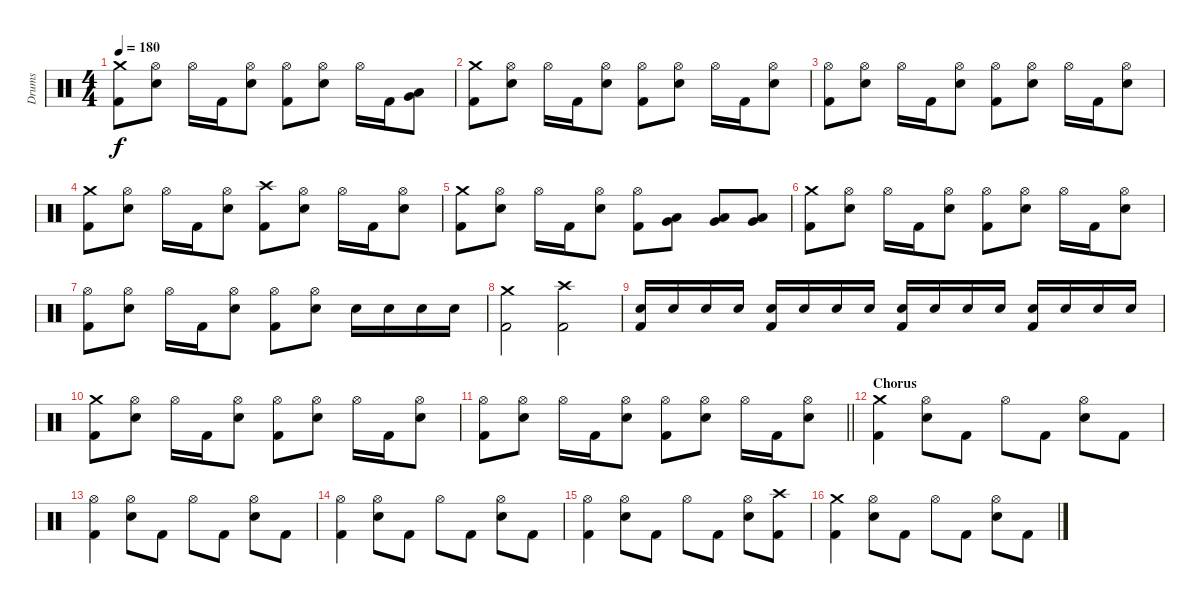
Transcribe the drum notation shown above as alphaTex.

\track ("Drums" "Drums") {instrument percussion}
\staff {score}
\articulation defaults
\ts (4 4)
\tempo 180
\clef neutral
\ks c
("Crash medium (hit)" "Kick (hit) 2").8{dy f} ("Hi-Hat (open)" "Electric Snare (hit)").8 "Hi-Hat (open)".16 "Kick (hit) 2".16 ("Hi-Hat (open)" "Electric Snare (hit)").8 ("Hi-Hat (open)" "Kick (hit) 2").8 ("Hi-Hat (open)" "Electric Snare (hit)").8 "Hi-Hat (open)".16 "Kick (hit) 2".16 ("Very Low Tom (hit)" "Low Tom (hit)").8 |
("Crash medium (hit)" "Kick (hit) 2").8 ("Hi-Hat (open)" "Electric Snare (hit)").8 "Hi-Hat (open)".16 "Kick (hit) 2".16 ("Hi-Hat (open)" "Electric Snare (hit)").8 ("Hi-Hat (open)" "Kick (hit) 2").8 ("Hi-Hat (open)" "Electric Snare (hit)").8 "Hi-Hat (open)".16 "Kick (hit) 2".16 ("Hi-Hat (open)" "Electric Snare (hit)").8 |
("Hi-Hat (open)" "Kick (hit) 2").8 ("Hi-Hat (open)" "Electric Snare (hit)").8 "Hi-Hat (open)".16 "Kick (hit) 2".16 ("Hi-Hat (open)" "Electric Snare (hit)").8 ("Hi-Hat (open)" "Kick (hit) 2").8 ("Hi-Hat (open)" "Electric Snare (hit)").8 "Hi-Hat (open)".16 "Kick (hit) 2".16 ("Hi-Hat (open)" "Electric Snare (hit)").8 |
("Crash medium (hit)" "Kick (hit) 2").8 ("Hi-Hat (open)" "Electric Snare (hit)").8 "Hi-Hat (open)".16 "Kick (hit) 2".16 ("Hi-Hat (open)" "Electric Snare (hit)").8 ("Crash high (hit)" "Kick (hit) 2").8 ("Hi-Hat (open)" "Electric Snare (hit)").8 "Hi-Hat (open)".16 "Kick (hit) 2".16 ("Hi-Hat (open)" "Electric Snare (hit)").8 |
("Crash medium (hit)" "Kick (hit) 2").8 ("Hi-Hat (open)" "Electric Snare (hit)").8 "Hi-Hat (open)".16 "Kick (hit) 2".16 ("Hi-Hat (open)" "Electric Snare (hit)").8 ("Hi-Hat (open)" "Kick (hit) 2").8 ("Low Tom (hit)" "Very Low Tom (hit)").8 ("Low Tom (hit)" "Very Low Tom (hit)").8 ("Low Tom (hit)" "Very Low Tom (hit)").8 |
("Crash medium (hit)" "Kick (hit) 2").8 ("Hi-Hat (open)" "Electric Snare (hit)").8 "Hi-Hat (open)".16 "Kick (hit) 2".16 ("Hi-Hat (open)" "Electric Snare (hit)").8 ("Hi-Hat (open)" "Kick (hit) 2").8 ("Hi-Hat (open)" "Electric Snare (hit)").8 "Hi-Hat (open)".16 "Kick (hit) 2".16 ("Hi-Hat (open)" "Electric Snare (hit)").8 |
("Hi-Hat (open)" "Kick (hit) 2").8 ("Hi-Hat (open)" "Electric Snare (hit)").8 "Hi-Hat (open)".16 "Kick (hit) 2".16 ("Hi-Hat (open)" "Electric Snare (hit)").8 ("Hi-Hat (open)" "Kick (hit) 2").8 ("Hi-Hat (open)" "Electric Snare (hit)").8 "Electric Snare (hit)".16 "Electric Snare (hit)".16 "Electric Snare (hit)".16 "Electric Snare (hit)".16 |
("Crash medium (hit)" "Kick (hit) 2").2 ("Crash high (hit)" "Kick (hit) 2").2 |
("Electric Snare (hit)" "Kick (hit) 2").16 "Electric Snare (hit)".16 "Electric Snare (hit)".16 "Electric Snare (hit)".16 ("Electric Snare (hit)" "Kick (hit) 2").16 "Electric Snare (hit)".16 "Electric Snare (hit)".16 "Electric Snare (hit)".16 ("Electric Snare (hit)" "Kick (hit) 2").16 "Electric Snare (hit)".16 "Electric Snare (hit)".16 "Electric Snare (hit)".16 ("Electric Snare (hit)" "Kick (hit) 2").16 "Electric Snare (hit)".16 "Electric Snare (hit)".16 "Electric Snare (hit)".16 |
("Crash medium (hit)" "Kick (hit) 2").8 ("Hi-Hat (open)" "Electric Snare (hit)").8 "Hi-Hat (open)".16 "Kick (hit) 2".16 ("Hi-Hat (open)" "Electric Snare (hit)").8 ("Hi-Hat (open)" "Kick (hit) 2").8 ("Hi-Hat (open)" "Electric Snare (hit)").8 "Hi-Hat (open)".16 "Kick (hit) 2".16 ("Hi-Hat (open)" "Electric Snare (hit)").8 |
\barLineRight lightlight
("Hi-Hat (open)" "Kick (hit) 2").8 ("Hi-Hat (open)" "Electric Snare (hit)").8 "Hi-Hat (open)".16 "Kick (hit) 2".16 ("Hi-Hat (open)" "Electric Snare (hit)").8 ("Hi-Hat (open)" "Kick (hit) 2").8 ("Hi-Hat (open)" "Electric Snare (hit)").8 "Hi-Hat (open)".16 "Kick (hit) 2".16 ("Hi-Hat (open)" "Electric Snare (hit)").8 |
\section ("" "Chorus")
("Crash medium (hit)" "Kick (hit) 2").4 ("Hi-Hat (open)" "Electric Snare (hit)").8 "Kick (hit) 2".8 "Hi-Hat (open)".8 "Kick (hit) 2".8 ("Hi-Hat (open)" "Electric Snare (hit)").8 "Kick (hit) 2".8 |
("Hi-Hat (open)" "Kick (hit) 2").4 ("Hi-Hat (open)" "Electric Snare (hit)").8 "Kick (hit) 2".8 "Hi-Hat (open)".8 "Kick (hit) 2".8 ("Hi-Hat (open)" "Electric Snare (hit)").8 "Kick (hit) 2".8 |
("Hi-Hat (open)" "Kick (hit) 2").4 ("Hi-Hat (open)" "Electric Snare (hit)").8 "Kick (hit) 2".8 "Hi-Hat (open)".8 "Kick (hit) 2".8 ("Hi-Hat (open)" "Electric Snare (hit)").8 "Kick (hit) 2".8 |
("Hi-Hat (open)" "Kick (hit) 2").4 ("Hi-Hat (open)" "Electric Snare (hit)").8 "Kick (hit) 2".8 "Hi-Hat (open)".8 "Kick (hit) 2".8 ("Hi-Hat (open)" "Electric Snare (hit)").8 ("Crash high (hit)" "Kick (hit) 2").8 |
("Crash medium (hit)" "Kick (hit) 2").4 ("Hi-Hat (open)" "Electric Snare (hit)").8 "Kick (hit) 2".8 "Hi-Hat (open)".8 "Kick (hit) 2".8 ("Hi-Hat (open)" "Electric Snare (hit)").8 "Kick (hit) 2".8
